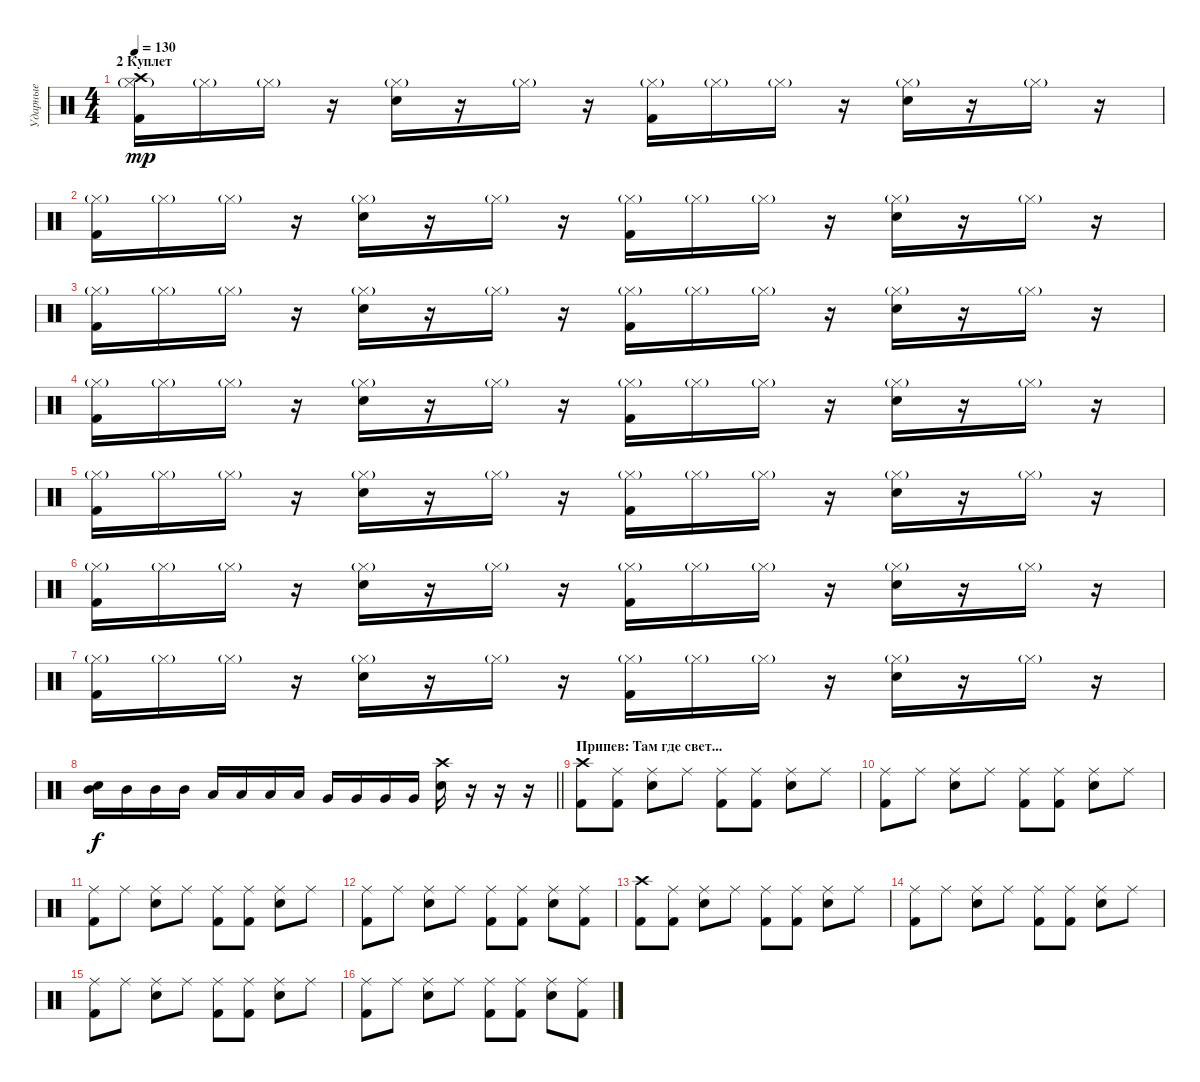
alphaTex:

\track ("Ударные" "Ударные") {instrument percussion}
\staff {score}
\articulation defaults
\ts (4 4)
\section ("" "2 Куплет")
\tempo 130
\clef neutral
\ks c
("Crash high (hit)" "Hi-Hat (closed)"{g} "Kick (hit) 2").16{dy mp} "Hi-Hat (closed)"{g}.16 "Hi-Hat (closed)"{g}.16 r.16 ("Hi-Hat (closed)"{g} "Snare (hit) 2").16 r.16 "Hi-Hat (closed)"{g}.16 r.16 ("Hi-Hat (closed)"{g} "Kick (hit) 2").16 "Hi-Hat (closed)"{g}.16 "Hi-Hat (closed)"{g}.16 r.16 ("Hi-Hat (closed)"{g} "Snare (hit) 2").16 r.16 "Hi-Hat (closed)"{g}.16 r.16 |
("Hi-Hat (closed)"{g} "Kick (hit) 2").16 "Hi-Hat (closed)"{g}.16 "Hi-Hat (closed)"{g}.16 r.16 ("Hi-Hat (closed)"{g} "Snare (hit) 2").16 r.16 "Hi-Hat (closed)"{g}.16 r.16 ("Hi-Hat (closed)"{g} "Kick (hit) 2").16 "Hi-Hat (closed)"{g}.16 "Hi-Hat (closed)"{g}.16 r.16 ("Hi-Hat (closed)"{g} "Snare (hit) 2").16 r.16 "Hi-Hat (closed)"{g}.16 r.16 |
("Hi-Hat (closed)"{g} "Kick (hit) 2").16 "Hi-Hat (closed)"{g}.16 "Hi-Hat (closed)"{g}.16 r.16 ("Hi-Hat (closed)"{g} "Snare (hit) 2").16 r.16 "Hi-Hat (closed)"{g}.16 r.16 ("Hi-Hat (closed)"{g} "Kick (hit) 2").16 "Hi-Hat (closed)"{g}.16 "Hi-Hat (closed)"{g}.16 r.16 ("Hi-Hat (closed)"{g} "Snare (hit) 2").16 r.16 "Hi-Hat (closed)"{g}.16 r.16 |
("Hi-Hat (closed)"{g} "Kick (hit) 2").16 "Hi-Hat (closed)"{g}.16 "Hi-Hat (closed)"{g}.16 r.16 ("Hi-Hat (closed)"{g} "Snare (hit) 2").16 r.16 "Hi-Hat (closed)"{g}.16 r.16 ("Hi-Hat (closed)"{g} "Kick (hit) 2").16 "Hi-Hat (closed)"{g}.16 "Hi-Hat (closed)"{g}.16 r.16 ("Hi-Hat (closed)"{g} "Snare (hit) 2").16 r.16 "Hi-Hat (closed)"{g}.16 r.16 |
("Hi-Hat (closed)"{g} "Kick (hit) 2").16 "Hi-Hat (closed)"{g}.16 "Hi-Hat (closed)"{g}.16 r.16 ("Hi-Hat (closed)"{g} "Snare (hit) 2").16 r.16 "Hi-Hat (closed)"{g}.16 r.16 ("Hi-Hat (closed)"{g} "Kick (hit) 2").16 "Hi-Hat (closed)"{g}.16 "Hi-Hat (closed)"{g}.16 r.16 ("Hi-Hat (closed)"{g} "Snare (hit) 2").16 r.16 "Hi-Hat (closed)"{g}.16 r.16 |
("Hi-Hat (closed)"{g} "Kick (hit) 2").16 "Hi-Hat (closed)"{g}.16 "Hi-Hat (closed)"{g}.16 r.16 ("Hi-Hat (closed)"{g} "Snare (hit) 2").16 r.16 "Hi-Hat (closed)"{g}.16 r.16 ("Hi-Hat (closed)"{g} "Kick (hit) 2").16 "Hi-Hat (closed)"{g}.16 "Hi-Hat (closed)"{g}.16 r.16 ("Hi-Hat (closed)"{g} "Snare (hit) 2").16 r.16 "Hi-Hat (closed)"{g}.16 r.16 |
("Hi-Hat (closed)"{g} "Kick (hit) 2").16 "Hi-Hat (closed)"{g}.16 "Hi-Hat (closed)"{g}.16 r.16 ("Hi-Hat (closed)"{g} "Snare (hit) 2").16 r.16 "Hi-Hat (closed)"{g}.16 r.16 ("Hi-Hat (closed)"{g} "Kick (hit) 2").16 "Hi-Hat (closed)"{g}.16 "Hi-Hat (closed)"{g}.16 r.16 ("Hi-Hat (closed)"{g} "Snare (hit) 2").16 r.16 "Hi-Hat (closed)"{g}.16 r.16 |
\barLineRight lightlight
("Mid Tom (hit)" "Snare (hit) 2").16{dy f} "Mid Tom (hit)".16 "Mid Tom (hit)".16 "Mid Tom (hit)".16 "Low Tom (hit)".16 "Low Tom (hit)".16 "Low Tom (hit)".16 "Low Tom (hit)".16 "Very Low Tom (hit)".16 "Very Low Tom (hit)".16 "Very Low Tom (hit)".16 "Very Low Tom (hit)".16 ("Crash high (hit)" "Snare (hit) 2").16 r.16 r.16 r.16 |
\section ("" "Припев: Там где свет...")
("Crash high (hit)" "Kick (hit) 2").8 ("Ride (middle)" "Kick (hit) 2").8 ("Ride (middle)" "Snare (hit) 2").8 "Ride (middle)".8 ("Ride (middle)" "Kick (hit) 2").8 ("Ride (middle)" "Kick (hit) 2").8 ("Ride (middle)" "Snare (hit) 2").8 "Ride (middle)".8 |
("Ride (middle)" "Kick (hit) 2").8 "Ride (middle)".8 ("Ride (middle)" "Snare (hit) 2").8 "Ride (middle)".8 ("Ride (middle)" "Kick (hit) 2").8 ("Ride (middle)" "Kick (hit) 2").8 ("Ride (middle)" "Snare (hit) 2").8 "Ride (middle)".8 |
("Ride (middle)" "Kick (hit) 2").8 "Ride (middle)".8 ("Ride (middle)" "Snare (hit) 2").8 "Ride (middle)".8 ("Ride (middle)" "Kick (hit) 2").8 ("Ride (middle)" "Kick (hit) 2").8 ("Ride (middle)" "Snare (hit) 2").8 "Ride (middle)".8 |
("Ride (middle)" "Kick (hit) 2").8 "Ride (middle)".8 ("Ride (middle)" "Snare (hit) 2").8 "Ride (middle)".8 ("Ride (middle)" "Kick (hit) 2").8 ("Ride (middle)" "Kick (hit) 2").8 ("Ride (middle)" "Snare (hit) 2").8 ("Ride (middle)" "Kick (hit) 2").8 |
("Crash high (hit)" "Kick (hit) 2").8 ("Ride (middle)" "Kick (hit) 2").8 ("Ride (middle)" "Snare (hit) 2").8 "Ride (middle)".8 ("Ride (middle)" "Kick (hit) 2").8 ("Ride (middle)" "Kick (hit) 2").8 ("Ride (middle)" "Snare (hit) 2").8 "Ride (middle)".8 |
("Ride (middle)" "Kick (hit) 2").8 "Ride (middle)".8 ("Ride (middle)" "Snare (hit) 2").8 "Ride (middle)".8 ("Ride (middle)" "Kick (hit) 2").8 ("Ride (middle)" "Kick (hit) 2").8 ("Ride (middle)" "Snare (hit) 2").8 "Ride (middle)".8 |
("Ride (middle)" "Kick (hit) 2").8 "Ride (middle)".8 ("Ride (middle)" "Snare (hit) 2").8 "Ride (middle)".8 ("Ride (middle)" "Kick (hit) 2").8 ("Ride (middle)" "Kick (hit) 2").8 ("Ride (middle)" "Snare (hit) 2").8 "Ride (middle)".8 |
("Ride (middle)" "Kick (hit) 2").8 "Ride (middle)".8 ("Ride (middle)" "Snare (hit) 2").8 "Ride (middle)".8 ("Ride (middle)" "Kick (hit) 2").8 ("Ride (middle)" "Kick (hit) 2").8 ("Ride (middle)" "Snare (hit) 2").8 ("Ride (middle)" "Kick (hit) 2").8
